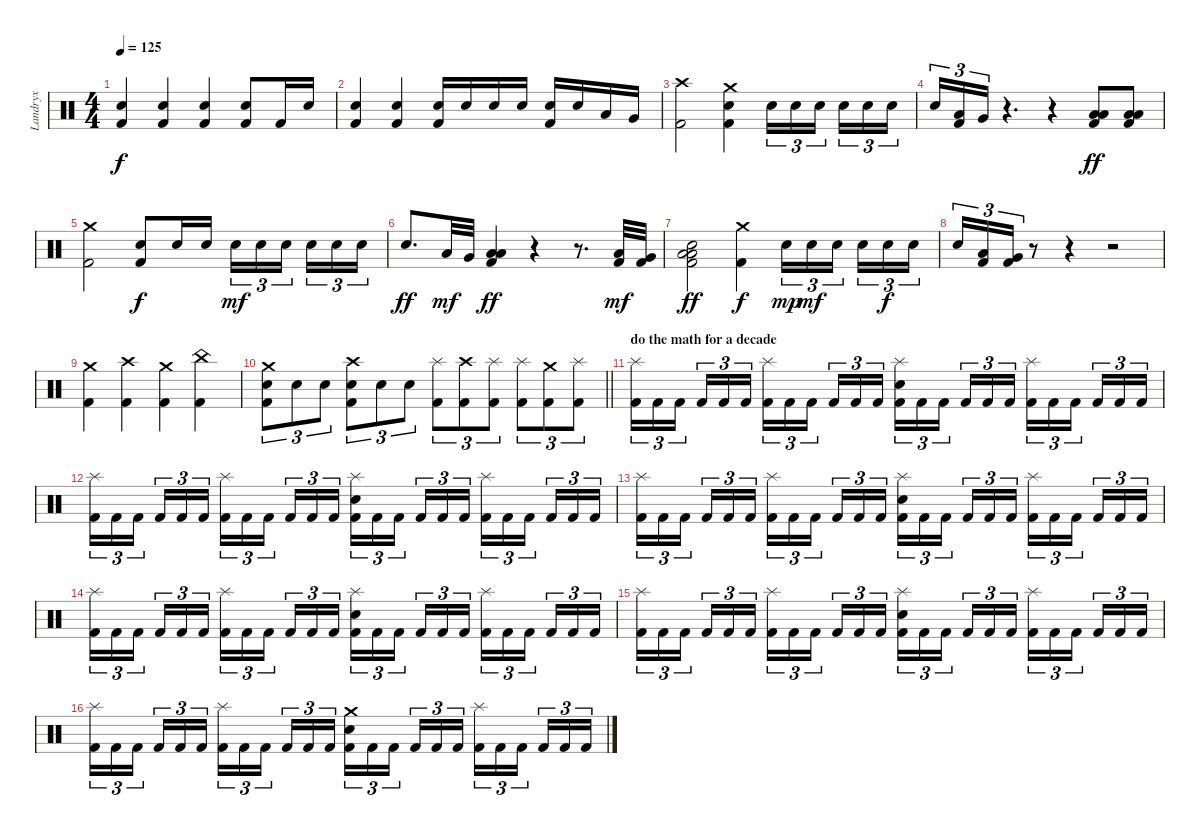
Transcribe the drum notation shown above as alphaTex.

\track ("Landryx" "Landryx") {instrument percussion}
\staff {score}
\articulation defaults
\ts (4 4)
\tempo 125
\clef neutral
\ks c
("Electric Snare (hit)" "Kick (hit) 2").4{dy f} ("Electric Snare (hit)" "Kick (hit) 2").4 ("Electric Snare (hit)" "Kick (hit) 2").4 ("Electric Snare (hit)" "Kick (hit) 2").8 "Kick (hit) 2".16 "Electric Snare (hit)".16 |
("Electric Snare (hit)" "Kick (hit) 2").4 ("Electric Snare (hit)" "Kick (hit) 2").4 ("Electric Snare (hit)" "Kick (hit) 2").16 "Electric Snare (hit)".16 "Electric Snare (hit)".16 "Electric Snare (hit)".16 ("Electric Snare (hit)" "Kick (hit) 2").16 "Electric Snare (hit)".16 "Low Tom (hit)".16 "Very Low Tom (hit)".16 |
("Crash high (hit)" "Kick (hit) 2").2 ("Crash medium (hit)" "Electric Snare (hit)" "Kick (hit) 2").4 "Electric Snare (hit)".16{tu (3 2)} "Electric Snare (hit)".16{tu (3 2)} "Electric Snare (hit)".16{tu (3 2) beam splitsecondary} "Electric Snare (hit)".16{tu (3 2)} "Electric Snare (hit)".16{tu (3 2)} "Electric Snare (hit)".16{tu (3 2)} |
"Electric Snare (hit)".16{tu (3 2)} ("Low Floor Tom (hit)" "Kick (hit) 2").16{tu (3 2)} "Very Low Tom (hit)".16{tu (3 2)} r.4{d} r.4 ("Low Tom (hit)" "Low Floor Tom (hit)" "Kick (hit) 2").8{dy ff} ("Low Tom (hit)" "Low Floor Tom (hit)" "Kick (hit) 2").8 |
("Crash medium (hit)" "Kick (hit) 2").2 ("Electric Snare (hit)" "Kick (hit) 2").8{dy f} "Electric Snare (hit)".16 "Electric Snare (hit)".16 "Electric Snare (hit)".16{tu (3 2) dy mf} "Electric Snare (hit)".16{tu (3 2)} "Electric Snare (hit)".16{tu (3 2) beam splitsecondary} "Electric Snare (hit)".16{tu (3 2)} "Electric Snare (hit)".16{tu (3 2)} "Electric Snare (hit)".16{tu (3 2)} |
"Electric Snare (hit)".8{d dy ff} "Low Tom (hit)".32{dy mf} "Very Low Tom (hit)".32 ("Low Tom (hit)" "Low Floor Tom (hit)" "Kick (hit) 2").4{dy ff} r.4 r.8{d} ("Low Tom (hit)" "Kick (hit) 2").32{dy mf} ("Very Low Tom (hit)" "Kick (hit) 2").32 |
("Low Tom (hit)" "Low Floor Tom (hit)" "Electric Snare (hit)" "Kick (hit) 2").2{dy ff} ("Crash medium (hit)" "Kick (hit) 2").4{dy f} "Electric Snare (hit)".16{tu (3 2) dy mp} "Electric Snare (hit)".16{tu (3 2) dy mf} "Electric Snare (hit)".16{tu (3 2) beam splitsecondary} "Electric Snare (hit)".16{tu (3 2)} "Electric Snare (hit)".16{tu (3 2) dy f} "Electric Snare (hit)".16{tu (3 2)} |
"Electric Snare (hit)".16{tu (3 2)} ("Low Tom (hit)" "Kick (hit) 2").16{tu (3 2)} ("Very Low Tom (hit)" "Kick (hit) 2").16{tu (3 2)} r.8 r.4 r.2 |
("Crash medium (hit)" "Kick (hit) 2").4 ("Crash high (hit)" "Kick (hit) 2").4 ("Crash medium (hit)" "Kick (hit) 2").4 ("China (hit)" "Kick (hit) 2").4 |
\barLineRight lightlight
("Crash medium (hit)" "Electric Snare (hit)" "Kick (hit) 2").8{tu (3 2)} "Electric Snare (hit)".8{tu (3 2)} "Electric Snare (hit)".8{tu (3 2)} ("Crash high (hit)" "Electric Snare (hit)" "Kick (hit) 2").8{tu (3 2)} "Electric Snare (hit)".8{tu (3 2)} "Electric Snare (hit)".8{tu (3 2)} ("Splash (hit)" "Kick (hit) 2").8{tu (3 2)} ("Crash high (hit)" "Kick (hit) 2").8{tu (3 2)} ("Splash (hit)" "Kick (hit) 2").8{tu (3 2)} ("Splash (hit)" "Kick (hit) 2").8{tu (3 2)} ("Crash medium (hit)" "Kick (hit) 2").8{tu (3 2)} ("Splash (hit)" "Kick (hit) 2").8{tu (3 2)} |
\section ("" "do the math for a decade")
("Splash (hit)" "Kick (hit) 2").16{tu (3 2)} "Kick (hit) 2".16{tu (3 2)} "Kick (hit) 2".16{tu (3 2) beam splitsecondary} "Kick (hit) 2".16{tu (3 2)} "Kick (hit) 2".16{tu (3 2)} "Kick (hit) 2".16{tu (3 2)} ("Splash (hit)" "Kick (hit) 2").16{tu (3 2)} "Kick (hit) 2".16{tu (3 2)} "Kick (hit) 2".16{tu (3 2) beam splitsecondary} "Kick (hit) 2".16{tu (3 2)} "Kick (hit) 2".16{tu (3 2)} "Kick (hit) 2".16{tu (3 2)} ("Splash (hit)" "Electric Snare (hit)" "Kick (hit) 2").16{tu (3 2)} "Kick (hit) 2".16{tu (3 2)} "Kick (hit) 2".16{tu (3 2) beam splitsecondary} "Kick (hit) 2".16{tu (3 2)} "Kick (hit) 2".16{tu (3 2)} "Kick (hit) 2".16{tu (3 2)} ("Splash (hit)" "Kick (hit) 2").16{tu (3 2)} "Kick (hit) 2".16{tu (3 2)} "Kick (hit) 2".16{tu (3 2) beam splitsecondary} "Kick (hit) 2".16{tu (3 2)} "Kick (hit) 2".16{tu (3 2)} "Kick (hit) 2".16{tu (3 2)} |
("Splash (hit)" "Kick (hit) 2").16{tu (3 2)} "Kick (hit) 2".16{tu (3 2)} "Kick (hit) 2".16{tu (3 2) beam splitsecondary} "Kick (hit) 2".16{tu (3 2)} "Kick (hit) 2".16{tu (3 2)} "Kick (hit) 2".16{tu (3 2)} ("Splash (hit)" "Kick (hit) 2").16{tu (3 2)} "Kick (hit) 2".16{tu (3 2)} "Kick (hit) 2".16{tu (3 2) beam splitsecondary} "Kick (hit) 2".16{tu (3 2)} "Kick (hit) 2".16{tu (3 2)} "Kick (hit) 2".16{tu (3 2)} ("Splash (hit)" "Electric Snare (hit)" "Kick (hit) 2").16{tu (3 2)} "Kick (hit) 2".16{tu (3 2)} "Kick (hit) 2".16{tu (3 2) beam splitsecondary} "Kick (hit) 2".16{tu (3 2)} "Kick (hit) 2".16{tu (3 2)} "Kick (hit) 2".16{tu (3 2)} ("Splash (hit)" "Kick (hit) 2").16{tu (3 2)} "Kick (hit) 2".16{tu (3 2)} "Kick (hit) 2".16{tu (3 2) beam splitsecondary} "Kick (hit) 2".16{tu (3 2)} "Kick (hit) 2".16{tu (3 2)} "Kick (hit) 2".16{tu (3 2)} |
("Splash (hit)" "Kick (hit) 2").16{tu (3 2)} "Kick (hit) 2".16{tu (3 2)} "Kick (hit) 2".16{tu (3 2) beam splitsecondary} "Kick (hit) 2".16{tu (3 2)} "Kick (hit) 2".16{tu (3 2)} "Kick (hit) 2".16{tu (3 2)} ("Splash (hit)" "Kick (hit) 2").16{tu (3 2)} "Kick (hit) 2".16{tu (3 2)} "Kick (hit) 2".16{tu (3 2) beam splitsecondary} "Kick (hit) 2".16{tu (3 2)} "Kick (hit) 2".16{tu (3 2)} "Kick (hit) 2".16{tu (3 2)} ("Splash (hit)" "Electric Snare (hit)" "Kick (hit) 2").16{tu (3 2)} "Kick (hit) 2".16{tu (3 2)} "Kick (hit) 2".16{tu (3 2) beam splitsecondary} "Kick (hit) 2".16{tu (3 2)} "Kick (hit) 2".16{tu (3 2)} "Kick (hit) 2".16{tu (3 2)} ("Splash (hit)" "Kick (hit) 2").16{tu (3 2)} "Kick (hit) 2".16{tu (3 2)} "Kick (hit) 2".16{tu (3 2) beam splitsecondary} "Kick (hit) 2".16{tu (3 2)} "Kick (hit) 2".16{tu (3 2)} "Kick (hit) 2".16{tu (3 2)} |
("Splash (hit)" "Kick (hit) 2").16{tu (3 2)} "Kick (hit) 2".16{tu (3 2)} "Kick (hit) 2".16{tu (3 2) beam splitsecondary} "Kick (hit) 2".16{tu (3 2)} "Kick (hit) 2".16{tu (3 2)} "Kick (hit) 2".16{tu (3 2)} ("Splash (hit)" "Kick (hit) 2").16{tu (3 2)} "Kick (hit) 2".16{tu (3 2)} "Kick (hit) 2".16{tu (3 2) beam splitsecondary} "Kick (hit) 2".16{tu (3 2)} "Kick (hit) 2".16{tu (3 2)} "Kick (hit) 2".16{tu (3 2)} ("Splash (hit)" "Electric Snare (hit)" "Kick (hit) 2").16{tu (3 2)} "Kick (hit) 2".16{tu (3 2)} "Kick (hit) 2".16{tu (3 2) beam splitsecondary} "Kick (hit) 2".16{tu (3 2)} "Kick (hit) 2".16{tu (3 2)} "Kick (hit) 2".16{tu (3 2)} ("Splash (hit)" "Kick (hit) 2").16{tu (3 2)} "Kick (hit) 2".16{tu (3 2)} "Kick (hit) 2".16{tu (3 2) beam splitsecondary} "Kick (hit) 2".16{tu (3 2)} "Kick (hit) 2".16{tu (3 2)} "Kick (hit) 2".16{tu (3 2)} |
("Splash (hit)" "Kick (hit) 2").16{tu (3 2)} "Kick (hit) 2".16{tu (3 2)} "Kick (hit) 2".16{tu (3 2) beam splitsecondary} "Kick (hit) 2".16{tu (3 2)} "Kick (hit) 2".16{tu (3 2)} "Kick (hit) 2".16{tu (3 2)} ("Splash (hit)" "Kick (hit) 2").16{tu (3 2)} "Kick (hit) 2".16{tu (3 2)} "Kick (hit) 2".16{tu (3 2) beam splitsecondary} "Kick (hit) 2".16{tu (3 2)} "Kick (hit) 2".16{tu (3 2)} "Kick (hit) 2".16{tu (3 2)} ("Splash (hit)" "Electric Snare (hit)" "Kick (hit) 2").16{tu (3 2)} "Kick (hit) 2".16{tu (3 2)} "Kick (hit) 2".16{tu (3 2) beam splitsecondary} "Kick (hit) 2".16{tu (3 2)} "Kick (hit) 2".16{tu (3 2)} "Kick (hit) 2".16{tu (3 2)} ("Splash (hit)" "Kick (hit) 2").16{tu (3 2)} "Kick (hit) 2".16{tu (3 2)} "Kick (hit) 2".16{tu (3 2) beam splitsecondary} "Kick (hit) 2".16{tu (3 2)} "Kick (hit) 2".16{tu (3 2)} "Kick (hit) 2".16{tu (3 2)} |
("Splash (hit)" "Kick (hit) 2").16{tu (3 2)} "Kick (hit) 2".16{tu (3 2)} "Kick (hit) 2".16{tu (3 2) beam splitsecondary} "Kick (hit) 2".16{tu (3 2)} "Kick (hit) 2".16{tu (3 2)} "Kick (hit) 2".16{tu (3 2)} ("Splash (hit)" "Kick (hit) 2").16{tu (3 2)} "Kick (hit) 2".16{tu (3 2)} "Kick (hit) 2".16{tu (3 2) beam splitsecondary} "Kick (hit) 2".16{tu (3 2)} "Kick (hit) 2".16{tu (3 2)} "Kick (hit) 2".16{tu (3 2)} ("Crash medium (hit)" "Electric Snare (hit)" "Kick (hit) 2").16{tu (3 2)} "Kick (hit) 2".16{tu (3 2)} "Kick (hit) 2".16{tu (3 2) beam splitsecondary} "Kick (hit) 2".16{tu (3 2)} "Kick (hit) 2".16{tu (3 2)} "Kick (hit) 2".16{tu (3 2)} ("Splash (hit)" "Kick (hit) 2").16{tu (3 2)} "Kick (hit) 2".16{tu (3 2)} "Kick (hit) 2".16{tu (3 2) beam splitsecondary} "Kick (hit) 2".16{tu (3 2)} "Kick (hit) 2".16{tu (3 2)} "Kick (hit) 2".16{tu (3 2)}
